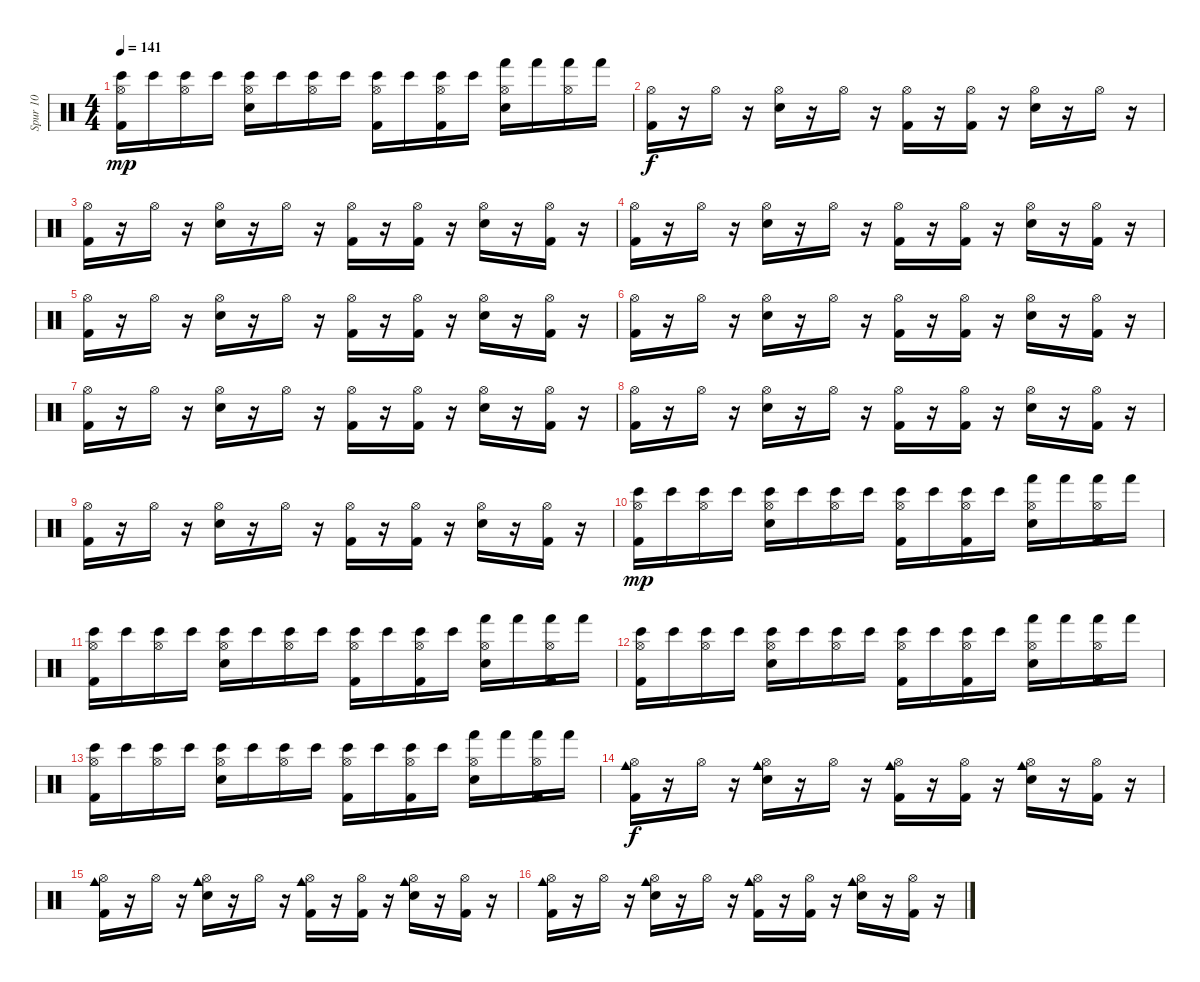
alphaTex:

\track ("Spur 10" "Spur 10") {instrument percussion}
\staff {score}
\articulation defaults
\ts (4 4)
\tempo 141
\clef neutral
\ks c
("Bongo High (hit)" "Hi-Hat (open)" "Kick (hit) 2").16{dy mp} "Bongo High (hit)".16 ("Bongo High (hit)" "Hi-Hat (open)").16 "Bongo High (hit)".16 ("Bongo High (hit)" "Hi-Hat (open)" "Snare (hit) 2").16 "Bongo High (hit)".16 ("Bongo High (hit)" "Hi-Hat (open)").16 "Bongo High (hit)".16 ("Bongo High (hit)" "Hi-Hat (open)" "Kick (hit) 2").16 "Bongo High (hit)".16 ("Bongo High (hit)" "Hi-Hat (open)" "Kick (hit) 2").16 "Bongo High (hit)".16 ("Hand (hit)" "Hi-Hat (open)" "Snare (hit) 2").16 "Hand (hit)".16 ("Hand (hit)" "Hi-Hat (open)").16 "Hand (hit)".16 |
("Hi-Hat (open)" "Kick (hit) 2").16{dy f} r.16 "Hi-Hat (open)".16 r.16 ("Hi-Hat (open)" "Snare (hit) 2").16 r.16 "Hi-Hat (open)".16 r.16 ("Hi-Hat (open)" "Kick (hit) 2").16 r.16 ("Hi-Hat (open)" "Kick (hit) 2").16 r.16 ("Hi-Hat (open)" "Snare (hit) 2").16 r.16 "Hi-Hat (open)".16 r.16 |
("Hi-Hat (open)" "Kick (hit) 2").16 r.16 "Hi-Hat (open)".16 r.16 ("Hi-Hat (open)" "Snare (hit) 2").16 r.16 "Hi-Hat (open)".16 r.16 ("Hi-Hat (open)" "Kick (hit) 2").16 r.16 ("Hi-Hat (open)" "Kick (hit) 2").16 r.16 ("Hi-Hat (open)" "Snare (hit) 2").16 r.16 ("Kick (hit) 2" "Hi-Hat (open)").16 r.16 |
("Hi-Hat (open)" "Kick (hit) 2").16 r.16 "Hi-Hat (open)".16 r.16 ("Hi-Hat (open)" "Snare (hit) 2").16 r.16 "Hi-Hat (open)".16 r.16 ("Hi-Hat (open)" "Kick (hit) 2").16 r.16 ("Hi-Hat (open)" "Kick (hit) 2").16 r.16 ("Hi-Hat (open)" "Snare (hit) 2").16 r.16 ("Hi-Hat (open)" "Kick (hit) 2").16 r.16 |
("Hi-Hat (open)" "Kick (hit) 2").16 r.16 "Hi-Hat (open)".16 r.16 ("Hi-Hat (open)" "Snare (hit) 2").16 r.16 "Hi-Hat (open)".16 r.16 ("Hi-Hat (open)" "Kick (hit) 2").16 r.16 ("Hi-Hat (open)" "Kick (hit) 2").16 r.16 ("Hi-Hat (open)" "Snare (hit) 2").16 r.16 ("Kick (hit) 2" "Hi-Hat (open)").16 r.16 |
("Hi-Hat (open)" "Kick (hit) 2").16 r.16 "Hi-Hat (open)".16 r.16 ("Hi-Hat (open)" "Snare (hit) 2").16 r.16 "Hi-Hat (open)".16 r.16 ("Hi-Hat (open)" "Kick (hit) 2").16 r.16 ("Hi-Hat (open)" "Kick (hit) 2").16 r.16 ("Hi-Hat (open)" "Snare (hit) 2").16 r.16 ("Hi-Hat (open)" "Kick (hit) 2").16 r.16 |
("Hi-Hat (open)" "Kick (hit) 2").16 r.16 "Hi-Hat (open)".16 r.16 ("Hi-Hat (open)" "Snare (hit) 2").16 r.16 "Hi-Hat (open)".16 r.16 ("Hi-Hat (open)" "Kick (hit) 2").16 r.16 ("Hi-Hat (open)" "Kick (hit) 2").16 r.16 ("Hi-Hat (open)" "Snare (hit) 2").16 r.16 ("Kick (hit) 2" "Hi-Hat (open)").16 r.16 |
("Hi-Hat (open)" "Kick (hit) 2").16 r.16 "Hi-Hat (open)".16 r.16 ("Hi-Hat (open)" "Snare (hit) 2").16 r.16 "Hi-Hat (open)".16 r.16 ("Hi-Hat (open)" "Kick (hit) 2").16 r.16 ("Hi-Hat (open)" "Kick (hit) 2").16 r.16 ("Hi-Hat (open)" "Snare (hit) 2").16 r.16 ("Hi-Hat (open)" "Kick (hit) 2").16 r.16 |
("Hi-Hat (open)" "Kick (hit) 2").16 r.16 "Hi-Hat (open)".16 r.16 ("Hi-Hat (open)" "Snare (hit) 2").16 r.16 "Hi-Hat (open)".16 r.16 ("Hi-Hat (open)" "Kick (hit) 2").16 r.16 ("Hi-Hat (open)" "Kick (hit) 2").16 r.16 ("Hi-Hat (open)" "Snare (hit) 2").16 r.16 ("Kick (hit) 2" "Hi-Hat (open)").16 r.16 |
("Bongo High (hit)" "Hi-Hat (open)" "Kick (hit) 2").16{dy mp} "Bongo High (hit)".16 ("Bongo High (hit)" "Hi-Hat (open)").16 "Bongo High (hit)".16 ("Bongo High (hit)" "Hi-Hat (open)" "Snare (hit) 2").16 "Bongo High (hit)".16 ("Bongo High (hit)" "Hi-Hat (open)").16 "Bongo High (hit)".16 ("Bongo High (hit)" "Hi-Hat (open)" "Kick (hit) 2").16 "Bongo High (hit)".16 ("Bongo High (hit)" "Hi-Hat (open)" "Kick (hit) 2").16 "Bongo High (hit)".16 ("Hand (hit)" "Hi-Hat (open)" "Snare (hit) 2").16 "Hand (hit)".16 ("Hand (hit)" "Hi-Hat (open)" "Kick (hit) 2").16 "Hand (hit)".16 |
("Bongo High (hit)" "Hi-Hat (open)" "Kick (hit) 2").16 "Bongo High (hit)".16 ("Bongo High (hit)" "Hi-Hat (open)").16 "Bongo High (hit)".16 ("Bongo High (hit)" "Hi-Hat (open)" "Snare (hit) 2").16 "Bongo High (hit)".16 ("Bongo High (hit)" "Hi-Hat (open)").16 "Bongo High (hit)".16 ("Bongo High (hit)" "Hi-Hat (open)" "Kick (hit) 2").16 "Bongo High (hit)".16 ("Bongo High (hit)" "Hi-Hat (open)" "Kick (hit) 2").16 "Bongo High (hit)".16 ("Hand (hit)" "Hi-Hat (open)" "Snare (hit) 2").16 "Hand (hit)".16 ("Hand (hit)" "Kick (hit) 2" "Hi-Hat (open)").16 "Hand (hit)".16 |
("Bongo High (hit)" "Hi-Hat (open)" "Kick (hit) 2").16 "Bongo High (hit)".16 ("Bongo High (hit)" "Hi-Hat (open)").16 "Bongo High (hit)".16 ("Bongo High (hit)" "Hi-Hat (open)" "Snare (hit) 2").16 "Bongo High (hit)".16 ("Bongo High (hit)" "Hi-Hat (open)").16 "Bongo High (hit)".16 ("Bongo High (hit)" "Hi-Hat (open)" "Kick (hit) 2").16 "Bongo High (hit)".16 ("Bongo High (hit)" "Hi-Hat (open)" "Kick (hit) 2").16 "Bongo High (hit)".16 ("Hand (hit)" "Hi-Hat (open)" "Snare (hit) 2").16 "Hand (hit)".16 ("Hand (hit)" "Hi-Hat (open)" "Kick (hit) 2").16 "Hand (hit)".16 |
("Bongo High (hit)" "Hi-Hat (open)" "Kick (hit) 2").16 "Bongo High (hit)".16 ("Bongo High (hit)" "Hi-Hat (open)").16 "Bongo High (hit)".16 ("Bongo High (hit)" "Hi-Hat (open)" "Snare (hit) 2").16 "Bongo High (hit)".16 ("Bongo High (hit)" "Hi-Hat (open)").16 "Bongo High (hit)".16 ("Bongo High (hit)" "Hi-Hat (open)" "Kick (hit) 2").16 "Bongo High (hit)".16 ("Bongo High (hit)" "Hi-Hat (open)" "Kick (hit) 2").16 "Bongo High (hit)".16 ("Hand (hit)" "Hi-Hat (open)" "Snare (hit) 2").16 "Hand (hit)".16 ("Hand (hit)" "Kick (hit) 2" "Hi-Hat (open)").16 "Hand (hit)".16 |
("Cowbell medium (hit)" "Hi-Hat (open)" "Kick (hit) 2").16{dy f} r.16 "Hi-Hat (open)".16 r.16 ("Cowbell medium (hit)" "Hi-Hat (open)" "Snare (hit) 2").16 r.16 "Hi-Hat (open)".16 r.16 ("Cowbell medium (hit)" "Hi-Hat (open)" "Kick (hit) 2").16 r.16 ("Hi-Hat (open)" "Kick (hit) 2").16 r.16 ("Cowbell medium (hit)" "Hi-Hat (open)" "Snare (hit) 2").16 r.16 ("Hi-Hat (open)" "Kick (hit) 2").16 r.16 |
("Cowbell medium (hit)" "Hi-Hat (open)" "Kick (hit) 2").16 r.16 "Hi-Hat (open)".16 r.16 ("Cowbell medium (hit)" "Hi-Hat (open)" "Snare (hit) 2").16 r.16 "Hi-Hat (open)".16 r.16 ("Cowbell medium (hit)" "Hi-Hat (open)" "Kick (hit) 2").16 r.16 ("Hi-Hat (open)" "Kick (hit) 2").16 r.16 ("Cowbell medium (hit)" "Hi-Hat (open)" "Snare (hit) 2").16 r.16 ("Kick (hit) 2" "Hi-Hat (open)").16 r.16 |
("Cowbell medium (hit)" "Kick (hit) 2" "Hi-Hat (open)").16 r.16 "Hi-Hat (open)".16 r.16 ("Cowbell medium (hit)" "Snare (hit) 2" "Hi-Hat (open)").16 r.16 "Hi-Hat (open)".16 r.16 ("Cowbell medium (hit)" "Kick (hit) 2" "Hi-Hat (open)").16 r.16 ("Kick (hit) 2" "Hi-Hat (open)").16 r.16 ("Cowbell medium (hit)" "Snare (hit) 2" "Hi-Hat (open)").16 r.16 ("Kick (hit) 2" "Hi-Hat (open)").16 r.16
